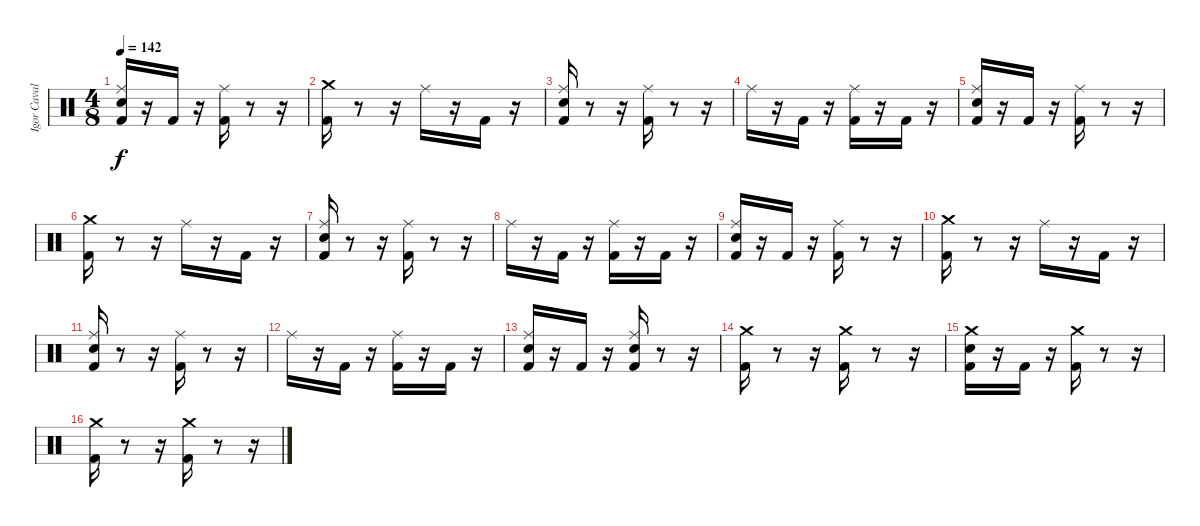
\track ("Igor Cavalera" "Igor Caval") {instrument percussion}
\staff {score}
\articulation defaults
\ts (4 8)
\tempo 142
\clef neutral
\ks c
("Electric Snare (hit)" "Ride (middle)" "Kick (hit) 2").16{dy f} r.16 "Kick (hit) 2".16 r.16 ("Kick (hit) 2" "Ride (middle)").16 r.8 r.16 |
("Kick (hit) 2" "Crash medium (hit)").16 r.8 r.16 "Ride (middle)".16 r.16 "Kick (hit) 2".16 r.16 |
("Electric Snare (hit)" "Ride (middle)" "Kick (hit) 2").16 r.8 r.16 ("Kick (hit) 2" "Ride (middle)").16 r.8 r.16 |
"Ride (middle)".16 r.16 "Kick (hit) 2".16 r.16 ("Ride (middle)" "Kick (hit) 2").16 r.16 "Kick (hit) 2".16 r.16 |
("Electric Snare (hit)" "Ride (middle)" "Kick (hit) 2").16 r.16 "Kick (hit) 2".16 r.16 ("Kick (hit) 2" "Ride (middle)").16 r.8 r.16 |
("Kick (hit) 2" "Crash medium (hit)").16 r.8 r.16 "Ride (middle)".16 r.16 "Kick (hit) 2".16 r.16 |
("Electric Snare (hit)" "Ride (middle)" "Kick (hit) 2").16 r.8 r.16 ("Kick (hit) 2" "Ride (middle)").16 r.8 r.16 |
"Ride (middle)".16 r.16 "Kick (hit) 2".16 r.16 ("Ride (middle)" "Kick (hit) 2").16 r.16 "Kick (hit) 2".16 r.16 |
("Electric Snare (hit)" "Ride (middle)" "Kick (hit) 2").16 r.16 "Kick (hit) 2".16 r.16 ("Kick (hit) 2" "Ride (middle)").16 r.8 r.16 |
("Kick (hit) 2" "Crash medium (hit)").16 r.8 r.16 "Ride (middle)".16 r.16 "Kick (hit) 2".16 r.16 |
("Electric Snare (hit)" "Ride (middle)" "Kick (hit) 2").16 r.8 r.16 ("Kick (hit) 2" "Ride (middle)").16 r.8 r.16 |
"Ride (middle)".16 r.16 "Kick (hit) 2".16 r.16 ("Ride (middle)" "Kick (hit) 2").16 r.16 "Kick (hit) 2".16 r.16 |
("Electric Snare (hit)" "Ride (middle)" "Kick (hit) 2").16 r.16 "Kick (hit) 2".16 r.16 ("Kick (hit) 2" "Ride (middle)" "Electric Snare (hit)").16 r.8 r.16 |
("Kick (hit) 2" "Crash medium (hit)").16 r.8 r.16 ("Kick (hit) 2" "Crash medium (hit)").16 r.8 r.16 |
("Electric Snare (hit)" "Crash medium (hit)" "Kick (hit) 2").16 r.16 "Kick (hit) 2".16 r.16 ("Kick (hit) 2" "Crash medium (hit)").16 r.8 r.16 |
("Kick (hit) 2" "Crash medium (hit)").16 r.8 r.16 ("Kick (hit) 2" "Crash medium (hit)").16 r.8 r.16
